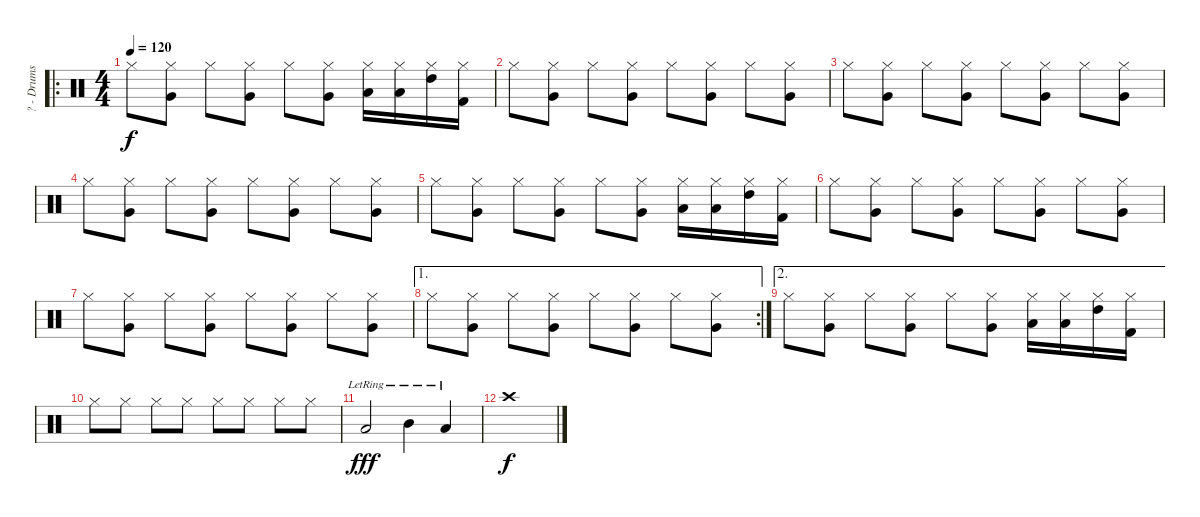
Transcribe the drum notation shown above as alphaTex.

\track ("? - Drums" "? - Drums") {instrument percussion}
\staff {score}
\articulation defaults
\ro
\ts (4 4)
\tempo 120
\clef neutral
\ks c "Hi-Hat (closed)".8{dy f}
("Hi-Hat (closed)" "Very Low Tom (hit)").8 "Hi-Hat (closed)".8 ("Hi-Hat (closed)" "Very Low Tom (hit)").8 "Hi-Hat (closed)".8 ("Hi-Hat (closed)" "Very Low Tom (hit)").8 ("Hi-Hat (closed)" "Low Tom (hit)").16 ("Hi-Hat (closed)" "Low Tom (hit)").16 ("Hi-Hat (closed)" "High Tom (hit)").16 ("Hi-Hat (closed)" "Kick (hit) 2").16 |
"Hi-Hat (closed)".8 ("Hi-Hat (closed)" "Very Low Tom (hit)").8 "Hi-Hat (closed)".8 ("Hi-Hat (closed)" "Very Low Tom (hit)").8 "Hi-Hat (closed)".8 ("Hi-Hat (closed)" "Very Low Tom (hit)").8 "Hi-Hat (closed)".8 ("Hi-Hat (closed)" "Very Low Tom (hit)").8 |
"Hi-Hat (closed)".8 ("Hi-Hat (closed)" "Very Low Tom (hit)").8 "Hi-Hat (closed)".8 ("Hi-Hat (closed)" "Very Low Tom (hit)").8 "Hi-Hat (closed)".8 ("Hi-Hat (closed)" "Very Low Tom (hit)").8 "Hi-Hat (closed)".8 ("Hi-Hat (closed)" "Very Low Tom (hit)").8 |
"Hi-Hat (closed)".8 ("Hi-Hat (closed)" "Very Low Tom (hit)").8 "Hi-Hat (closed)".8 ("Hi-Hat (closed)" "Very Low Tom (hit)").8 "Hi-Hat (closed)".8 ("Hi-Hat (closed)" "Very Low Tom (hit)").8 "Hi-Hat (closed)".8 ("Hi-Hat (closed)" "Very Low Tom (hit)").8 |
"Hi-Hat (closed)".8 ("Hi-Hat (closed)" "Very Low Tom (hit)").8 "Hi-Hat (closed)".8 ("Hi-Hat (closed)" "Very Low Tom (hit)").8 "Hi-Hat (closed)".8 ("Hi-Hat (closed)" "Very Low Tom (hit)").8 ("Hi-Hat (closed)" "Low Tom (hit)").16 ("Hi-Hat (closed)" "Low Tom (hit)").16 ("Hi-Hat (closed)" "High Tom (hit)").16 ("Hi-Hat (closed)" "Kick (hit) 2").16 |
"Hi-Hat (closed)".8 ("Hi-Hat (closed)" "Very Low Tom (hit)").8 "Hi-Hat (closed)".8 ("Hi-Hat (closed)" "Very Low Tom (hit)").8 "Hi-Hat (closed)".8 ("Hi-Hat (closed)" "Very Low Tom (hit)").8 "Hi-Hat (closed)".8 ("Hi-Hat (closed)" "Very Low Tom (hit)").8 |
"Hi-Hat (closed)".8 ("Hi-Hat (closed)" "Very Low Tom (hit)").8 "Hi-Hat (closed)".8 ("Hi-Hat (closed)" "Very Low Tom (hit)").8 "Hi-Hat (closed)".8 ("Hi-Hat (closed)" "Very Low Tom (hit)").8 "Hi-Hat (closed)".8 ("Hi-Hat (closed)" "Very Low Tom (hit)").8 |
\ae 1
\rc 2 "Hi-Hat (closed)".8
("Hi-Hat (closed)" "Very Low Tom (hit)").8 "Hi-Hat (closed)".8 ("Hi-Hat (closed)" "Very Low Tom (hit)").8 "Hi-Hat (closed)".8 ("Hi-Hat (closed)" "Very Low Tom (hit)").8 "Hi-Hat (closed)".8 ("Hi-Hat (closed)" "Very Low Tom (hit)").8 |
\ae 2 "Hi-Hat (closed)".8
("Hi-Hat (closed)" "Very Low Tom (hit)").8 "Hi-Hat (closed)".8 ("Hi-Hat (closed)" "Very Low Tom (hit)").8 "Hi-Hat (closed)".8 ("Hi-Hat (closed)" "Very Low Tom (hit)").8 ("Hi-Hat (closed)" "Low Tom (hit)").16 ("Hi-Hat (closed)" "Low Tom (hit)").16 ("Hi-Hat (closed)" "High Tom (hit)").16 ("Hi-Hat (closed)" "Kick (hit) 2").16 |
"Hi-Hat (closed)".8 "Hi-Hat (closed)".8 "Hi-Hat (closed)".8 "Hi-Hat (closed)".8 "Hi-Hat (closed)".8 "Hi-Hat (closed)".8 "Hi-Hat (closed)".8 "Hi-Hat (closed)".8 |
"Low Floor Tom (hit)"{lr}.2{dy fff} "Mid Tom (hit)"{lr}.4 "Low Floor Tom (hit)"{lr}.4 |
"Crash high (hit)".1{dy f}
